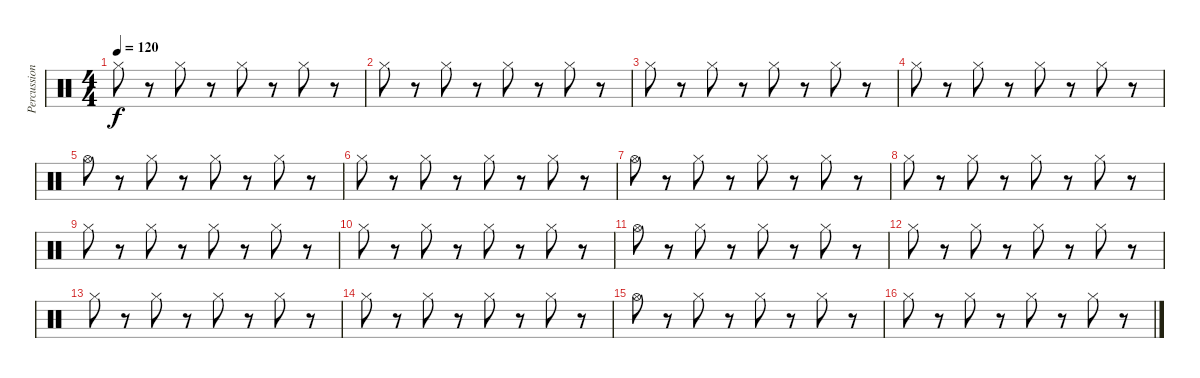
\track ("Percussion" "Percussion") {instrument percussion}
\staff {score}
\articulation defaults
\ts (4 4)
\tempo 120
\clef neutral
\ks c "Hi-Hat (closed)".8{dy f}
r.8 "Hi-Hat (closed)".8 r.8 "Hi-Hat (closed)".8 r.8 "Hi-Hat (closed)".8 r.8 |
"Hi-Hat (closed)".8 r.8 "Hi-Hat (closed)".8 r.8 "Hi-Hat (closed)".8 r.8 "Hi-Hat (closed)".8 r.8 |
"Hi-Hat (closed)".8 r.8 "Hi-Hat (closed)".8 r.8 "Hi-Hat (closed)".8 r.8 "Hi-Hat (closed)".8 r.8 |
"Hi-Hat (closed)".8 r.8 "Hi-Hat (closed)".8 r.8 "Hi-Hat (closed)".8 r.8 "Hi-Hat (closed)".8 r.8 |
"Hi-Hat (open)".8 r.8 "Hi-Hat (closed)".8 r.8 "Hi-Hat (closed)".8 r.8 "Hi-Hat (closed)".8 r.8 |
"Hi-Hat (closed)".8 r.8 "Hi-Hat (closed)".8 r.8 "Hi-Hat (closed)".8 r.8 "Hi-Hat (closed)".8 r.8 |
"Hi-Hat (open)".8 r.8 "Hi-Hat (closed)".8 r.8 "Hi-Hat (closed)".8 r.8 "Hi-Hat (closed)".8 r.8 |
"Hi-Hat (closed)".8 r.8 "Hi-Hat (closed)".8 r.8 "Hi-Hat (closed)".8 r.8 "Hi-Hat (closed)".8 r.8 |
"Hi-Hat (closed)".8 r.8 "Hi-Hat (closed)".8 r.8 "Hi-Hat (closed)".8 r.8 "Hi-Hat (closed)".8 r.8 |
"Hi-Hat (closed)".8 r.8 "Hi-Hat (closed)".8 r.8 "Hi-Hat (closed)".8 r.8 "Hi-Hat (closed)".8 r.8 |
"Hi-Hat (open)".8 r.8 "Hi-Hat (closed)".8 r.8 "Hi-Hat (closed)".8 r.8 "Hi-Hat (closed)".8 r.8 |
"Hi-Hat (closed)".8 r.8 "Hi-Hat (closed)".8 r.8 "Hi-Hat (closed)".8 r.8 "Hi-Hat (closed)".8 r.8 |
"Hi-Hat (closed)".8 r.8 "Hi-Hat (closed)".8 r.8 "Hi-Hat (closed)".8 r.8 "Hi-Hat (closed)".8 r.8 |
"Hi-Hat (closed)".8 r.8 "Hi-Hat (closed)".8 r.8 "Hi-Hat (closed)".8 r.8 "Hi-Hat (closed)".8 r.8 |
"Hi-Hat (open)".8 r.8 "Hi-Hat (closed)".8 r.8 "Hi-Hat (closed)".8 r.8 "Hi-Hat (closed)".8 r.8 |
"Hi-Hat (closed)".8 r.8 "Hi-Hat (closed)".8 r.8 "Hi-Hat (closed)".8 r.8 "Hi-Hat (closed)".8 r.8
